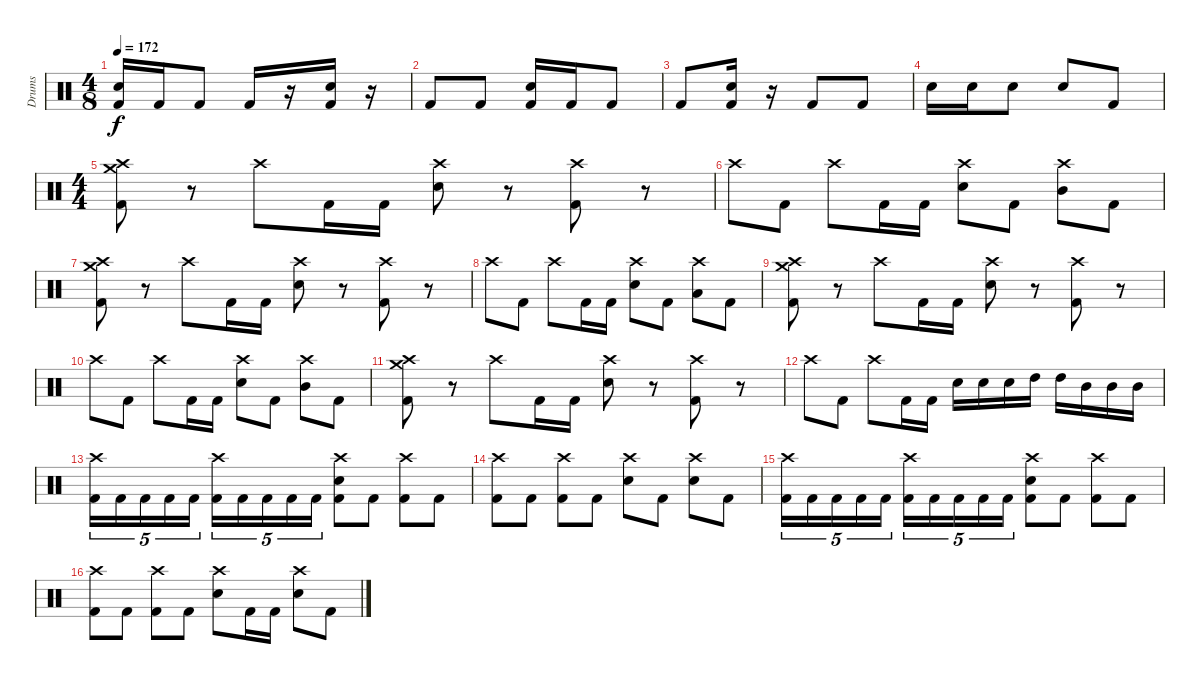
\track ("Drums" "Drums") {instrument percussion}
\staff {score}
\articulation defaults
\ts (4 8)
\tempo 172
\clef neutral
\ks c
("Snare (hit) 2" "Kick (hit) 2").16{dy f} "Kick (hit) 2".16 "Kick (hit) 2".8 "Kick (hit) 2".16 r.16 ("Snare (hit) 2" "Kick (hit) 2").16 r.16 |
"Kick (hit) 2".8 "Kick (hit) 2".8 ("Snare (hit) 2" "Kick (hit) 2").16 "Kick (hit) 2".16 "Kick (hit) 2".8 |
"Kick (hit) 2".8 ("Snare (hit) 2" "Kick (hit) 2").16 r.16 "Kick (hit) 2".8 "Kick (hit) 2".8 |
"Snare (hit) 2".16 "Snare (hit) 2".16 "Snare (hit) 2".8 "Snare (hit) 2".8 "Kick (hit) 2".8 |
\ts (4 4)
("Crash medium (hit)" "Crash high (hit)" "Kick (hit) 2").8 r.8 "Crash high (hit)".8 "Kick (hit) 2".16 "Kick (hit) 2".16 ("Crash high (hit)" "Snare (hit) 2").8 r.8 ("Crash high (hit)" "Kick (hit) 2").8 r.8 |
"Crash high (hit)".8 "Kick (hit) 2".8 "Crash high (hit)".8 "Kick (hit) 2".16 "Kick (hit) 2".16 ("Crash high (hit)" "Snare (hit) 2").8 "Kick (hit) 2".8 ("Crash high (hit)" "Mid Tom (hit)").8 "Kick (hit) 2".8 |
("Crash medium (hit)" "Crash high (hit)" "Kick (hit) 2").8 r.8 "Crash high (hit)".8 "Kick (hit) 2".16 "Kick (hit) 2".16 ("Crash high (hit)" "Snare (hit) 2").8 r.8 ("Crash high (hit)" "Kick (hit) 2").8 r.8 |
"Crash high (hit)".8 "Kick (hit) 2".8 "Crash high (hit)".8 "Kick (hit) 2".16 "Kick (hit) 2".16 ("Crash high (hit)" "Snare (hit) 2").8 "Kick (hit) 2".8 ("Crash high (hit)" "Low Tom (hit)").8 "Kick (hit) 2".8 |
("Crash medium (hit)" "Crash high (hit)" "Kick (hit) 2").8 r.8 "Crash high (hit)".8 "Kick (hit) 2".16 "Kick (hit) 2".16 ("Crash high (hit)" "Snare (hit) 2").8 r.8 ("Crash high (hit)" "Kick (hit) 2").8 r.8 |
"Crash high (hit)".8 "Kick (hit) 2".8 "Crash high (hit)".8 "Kick (hit) 2".16 "Kick (hit) 2".16 ("Crash high (hit)" "Snare (hit) 2").8 "Kick (hit) 2".8 ("Crash high (hit)" "Mid Tom (hit)").8 "Kick (hit) 2".8 |
("Crash medium (hit)" "Crash high (hit)" "Kick (hit) 2").8 r.8 "Crash high (hit)".8 "Kick (hit) 2".16 "Kick (hit) 2".16 ("Crash high (hit)" "Snare (hit) 2").8 r.8 ("Crash high (hit)" "Kick (hit) 2").8 r.8 |
"Crash high (hit)".8 "Kick (hit) 2".8 "Crash high (hit)".8 "Kick (hit) 2".16 "Kick (hit) 2".16 "Snare (hit) 2".16 "Snare (hit) 2".16 "Snare (hit) 2".16 "High Tom (hit)".16 "High Tom (hit)".16 "Mid Tom (hit)".16 "Mid Tom (hit)".16 "Mid Tom (hit)".16 |
("Crash high (hit)" "Kick (hit) 2").16{tu (5 4)} "Kick (hit) 2".16{tu (5 4)} "Kick (hit) 2".16{tu (5 4)} "Kick (hit) 2".16{tu (5 4)} "Kick (hit) 2".16{tu (5 4)} ("Crash high (hit)" "Kick (hit) 2").16{tu (5 4)} "Kick (hit) 2".16{tu (5 4)} "Kick (hit) 2".16{tu (5 4)} "Kick (hit) 2".16{tu (5 4)} "Kick (hit) 2".16{tu (5 4)} ("Crash high (hit)" "Snare (hit) 2" "Kick (hit) 2").8 "Kick (hit) 2".8 ("Crash high (hit)" "Kick (hit) 2").8 "Kick (hit) 2".8 |
("Crash high (hit)" "Kick (hit) 2").8 "Kick (hit) 2".8 ("Crash high (hit)" "Kick (hit) 2").8 "Kick (hit) 2".8 ("Crash high (hit)" "Snare (hit) 2").8 "Kick (hit) 2".8 ("Crash high (hit)" "Snare (hit) 2").8 "Kick (hit) 2".8 |
("Crash high (hit)" "Kick (hit) 2").16{tu (5 4)} "Kick (hit) 2".16{tu (5 4)} "Kick (hit) 2".16{tu (5 4)} "Kick (hit) 2".16{tu (5 4)} "Kick (hit) 2".16{tu (5 4)} ("Crash high (hit)" "Kick (hit) 2").16{tu (5 4)} "Kick (hit) 2".16{tu (5 4)} "Kick (hit) 2".16{tu (5 4)} "Kick (hit) 2".16{tu (5 4)} "Kick (hit) 2".16{tu (5 4)} ("Crash high (hit)" "Snare (hit) 2" "Kick (hit) 2").8 "Kick (hit) 2".8 ("Crash high (hit)" "Kick (hit) 2").8 "Kick (hit) 2".8 |
("Crash high (hit)" "Kick (hit) 2").8 "Kick (hit) 2".8 ("Crash high (hit)" "Kick (hit) 2").8 "Kick (hit) 2".8 ("Crash high (hit)" "Snare (hit) 2").8 "Kick (hit) 2".16 "Kick (hit) 2".16 ("Crash high (hit)" "Snare (hit) 2").8 "Kick (hit) 2".8
